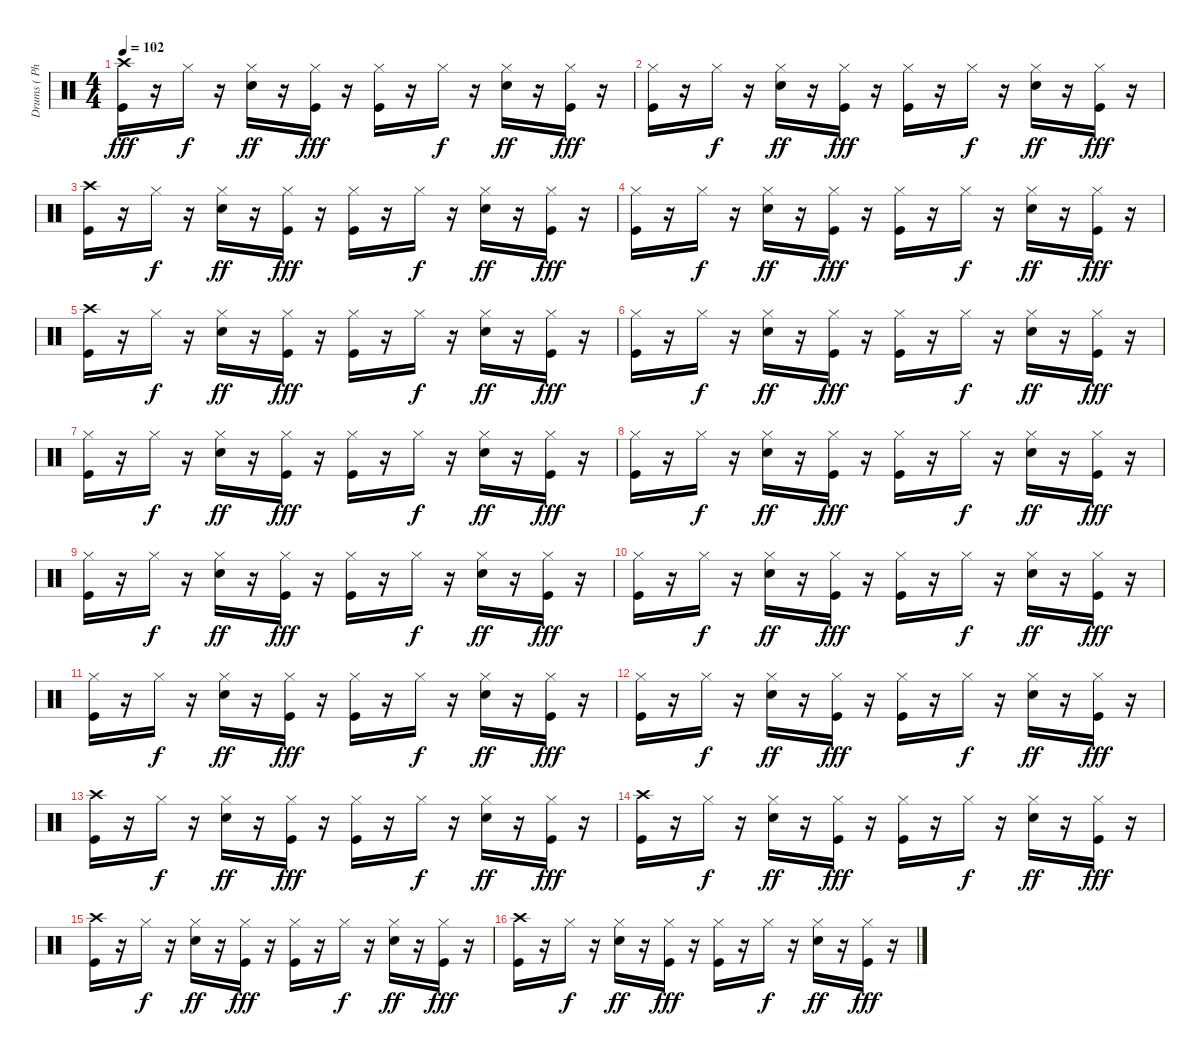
\track ("Drums ( Phillip Selway )" "Drums ( Ph") {instrument percussion}
\staff {score}
\articulation defaults
\ts (4 4)
\tempo 102
\clef neutral
\ks c
("Crash high (hit)" "Kick (hit)").16{dy fff} r.16 "Hi-Hat (closed)".16{dy f} r.16 ("Hi-Hat (closed)" "Electric Snare (hit)").16{dy ff} r.16 ("Hi-Hat (closed)" "Kick (hit)").16{dy fff} r.16 ("Hi-Hat (closed)" "Kick (hit)").16 r.16 "Hi-Hat (closed)".16{dy f} r.16 ("Hi-Hat (closed)" "Electric Snare (hit)").16{dy ff} r.16 ("Hi-Hat (closed)" "Kick (hit)").16{dy fff} r.16 |
("Hi-Hat (closed)" "Kick (hit)").16 r.16 "Hi-Hat (closed)".16{dy f} r.16 ("Hi-Hat (closed)" "Electric Snare (hit)").16{dy ff} r.16 ("Hi-Hat (closed)" "Kick (hit)").16{dy fff} r.16 ("Hi-Hat (closed)" "Kick (hit)").16 r.16 "Hi-Hat (closed)".16{dy f} r.16 ("Hi-Hat (closed)" "Electric Snare (hit)").16{dy ff} r.16 ("Hi-Hat (closed)" "Kick (hit)").16{dy fff} r.16 |
("Crash high (hit)" "Kick (hit)").16 r.16 "Hi-Hat (closed)".16{dy f} r.16 ("Hi-Hat (closed)" "Electric Snare (hit)").16{dy ff} r.16 ("Hi-Hat (closed)" "Kick (hit)").16{dy fff} r.16 ("Hi-Hat (closed)" "Kick (hit)").16 r.16 "Hi-Hat (closed)".16{dy f} r.16 ("Hi-Hat (closed)" "Electric Snare (hit)").16{dy ff} r.16 ("Hi-Hat (closed)" "Kick (hit)").16{dy fff} r.16 |
("Hi-Hat (closed)" "Kick (hit)").16 r.16 "Hi-Hat (closed)".16{dy f} r.16 ("Hi-Hat (closed)" "Electric Snare (hit)").16{dy ff} r.16 ("Hi-Hat (closed)" "Kick (hit)").16{dy fff} r.16 ("Hi-Hat (closed)" "Kick (hit)").16 r.16 "Hi-Hat (closed)".16{dy f} r.16 ("Hi-Hat (closed)" "Electric Snare (hit)").16{dy ff} r.16 ("Hi-Hat (closed)" "Kick (hit)").16{dy fff} r.16 |
("Crash high (hit)" "Kick (hit)").16 r.16 "Hi-Hat (closed)".16{dy f} r.16 ("Hi-Hat (closed)" "Electric Snare (hit)").16{dy ff} r.16 ("Hi-Hat (closed)" "Kick (hit)").16{dy fff} r.16 ("Hi-Hat (closed)" "Kick (hit)").16 r.16 "Hi-Hat (closed)".16{dy f} r.16 ("Hi-Hat (closed)" "Electric Snare (hit)").16{dy ff} r.16 ("Hi-Hat (closed)" "Kick (hit)").16{dy fff} r.16 |
("Hi-Hat (closed)" "Kick (hit)").16 r.16 "Hi-Hat (closed)".16{dy f} r.16 ("Hi-Hat (closed)" "Electric Snare (hit)").16{dy ff} r.16 ("Hi-Hat (closed)" "Kick (hit)").16{dy fff} r.16 ("Hi-Hat (closed)" "Kick (hit)").16 r.16 "Hi-Hat (closed)".16{dy f} r.16 ("Hi-Hat (closed)" "Electric Snare (hit)").16{dy ff} r.16 ("Hi-Hat (closed)" "Kick (hit)").16{dy fff} r.16 |
("Hi-Hat (closed)" "Kick (hit)").16 r.16 "Hi-Hat (closed)".16{dy f} r.16 ("Hi-Hat (closed)" "Electric Snare (hit)").16{dy ff} r.16 ("Hi-Hat (closed)" "Kick (hit)").16{dy fff} r.16 ("Hi-Hat (closed)" "Kick (hit)").16 r.16 "Hi-Hat (closed)".16{dy f} r.16 ("Hi-Hat (closed)" "Electric Snare (hit)").16{dy ff} r.16 ("Hi-Hat (closed)" "Kick (hit)").16{dy fff} r.16 |
("Hi-Hat (closed)" "Kick (hit)").16 r.16 "Hi-Hat (closed)".16{dy f} r.16 ("Hi-Hat (closed)" "Electric Snare (hit)").16{dy ff} r.16 ("Hi-Hat (closed)" "Kick (hit)").16{dy fff} r.16 ("Hi-Hat (closed)" "Kick (hit)").16 r.16 "Hi-Hat (closed)".16{dy f} r.16 ("Hi-Hat (closed)" "Electric Snare (hit)").16{dy ff} r.16 ("Hi-Hat (closed)" "Kick (hit)").16{dy fff} r.16 |
("Hi-Hat (closed)" "Kick (hit)").16 r.16 "Hi-Hat (closed)".16{dy f} r.16 ("Hi-Hat (closed)" "Electric Snare (hit)").16{dy ff} r.16 ("Hi-Hat (closed)" "Kick (hit)").16{dy fff} r.16 ("Hi-Hat (closed)" "Kick (hit)").16 r.16 "Hi-Hat (closed)".16{dy f} r.16 ("Hi-Hat (closed)" "Electric Snare (hit)").16{dy ff} r.16 ("Hi-Hat (closed)" "Kick (hit)").16{dy fff} r.16 |
("Hi-Hat (closed)" "Kick (hit)").16 r.16 "Hi-Hat (closed)".16{dy f} r.16 ("Hi-Hat (closed)" "Electric Snare (hit)").16{dy ff} r.16 ("Hi-Hat (closed)" "Kick (hit)").16{dy fff} r.16 ("Hi-Hat (closed)" "Kick (hit)").16 r.16 "Hi-Hat (closed)".16{dy f} r.16 ("Hi-Hat (closed)" "Electric Snare (hit)").16{dy ff} r.16 ("Hi-Hat (closed)" "Kick (hit)").16{dy fff} r.16 |
("Hi-Hat (closed)" "Kick (hit)").16 r.16 "Hi-Hat (closed)".16{dy f} r.16 ("Hi-Hat (closed)" "Electric Snare (hit)").16{dy ff} r.16 ("Hi-Hat (closed)" "Kick (hit)").16{dy fff} r.16 ("Hi-Hat (closed)" "Kick (hit)").16 r.16 "Hi-Hat (closed)".16{dy f} r.16 ("Hi-Hat (closed)" "Electric Snare (hit)").16{dy ff} r.16 ("Hi-Hat (closed)" "Kick (hit)").16{dy fff} r.16 |
("Hi-Hat (closed)" "Kick (hit)").16 r.16 "Hi-Hat (closed)".16{dy f} r.16 ("Hi-Hat (closed)" "Electric Snare (hit)").16{dy ff} r.16 ("Hi-Hat (closed)" "Kick (hit)").16{dy fff} r.16 ("Hi-Hat (closed)" "Kick (hit)").16 r.16 "Hi-Hat (closed)".16{dy f} r.16 ("Hi-Hat (closed)" "Electric Snare (hit)").16{dy ff} r.16 ("Hi-Hat (closed)" "Kick (hit)").16{dy fff} r.16 |
("Crash high (hit)" "Kick (hit)").16 r.16 "Hi-Hat (closed)".16{dy f} r.16 ("Hi-Hat (closed)" "Electric Snare (hit)").16{dy ff} r.16 ("Hi-Hat (closed)" "Kick (hit)").16{dy fff} r.16 ("Hi-Hat (closed)" "Kick (hit)").16 r.16 "Hi-Hat (closed)".16{dy f} r.16 ("Hi-Hat (closed)" "Electric Snare (hit)").16{dy ff} r.16 ("Hi-Hat (closed)" "Kick (hit)").16{dy fff} r.16 |
("Crash high (hit)" "Kick (hit)").16 r.16 "Hi-Hat (closed)".16{dy f} r.16 ("Hi-Hat (closed)" "Electric Snare (hit)").16{dy ff} r.16 ("Hi-Hat (closed)" "Kick (hit)").16{dy fff} r.16 ("Hi-Hat (closed)" "Kick (hit)").16 r.16 "Hi-Hat (closed)".16{dy f} r.16 ("Hi-Hat (closed)" "Electric Snare (hit)").16{dy ff} r.16 ("Hi-Hat (closed)" "Kick (hit)").16{dy fff} r.16 |
("Crash high (hit)" "Kick (hit)").16 r.16 "Hi-Hat (closed)".16{dy f} r.16 ("Hi-Hat (closed)" "Electric Snare (hit)").16{dy ff} r.16 ("Hi-Hat (closed)" "Kick (hit)").16{dy fff} r.16 ("Hi-Hat (closed)" "Kick (hit)").16 r.16 "Hi-Hat (closed)".16{dy f} r.16 ("Hi-Hat (closed)" "Electric Snare (hit)").16{dy ff} r.16 ("Hi-Hat (closed)" "Kick (hit)").16{dy fff} r.16 |
("Crash high (hit)" "Kick (hit)").16 r.16 "Hi-Hat (closed)".16{dy f} r.16 ("Hi-Hat (closed)" "Electric Snare (hit)").16{dy ff} r.16 ("Hi-Hat (closed)" "Kick (hit)").16{dy fff} r.16 ("Hi-Hat (closed)" "Kick (hit)").16 r.16 "Hi-Hat (closed)".16{dy f} r.16 ("Hi-Hat (closed)" "Electric Snare (hit)").16{dy ff} r.16 ("Hi-Hat (closed)" "Kick (hit)").16{dy fff} r.16
